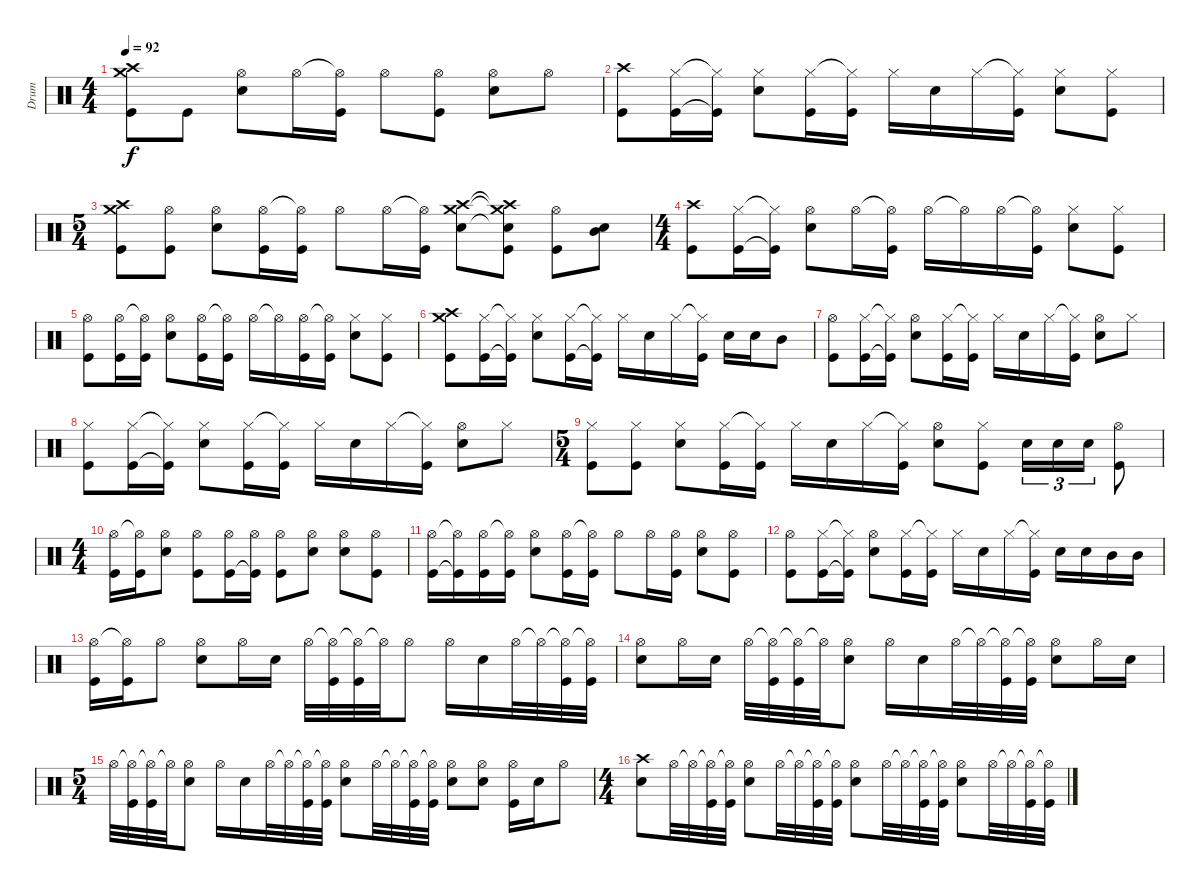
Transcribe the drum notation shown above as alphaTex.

\track ("Drum" "Drum") {instrument percussion}
\staff {score}
\articulation defaults
\ts (4 4)
\tempo 92
\clef neutral
\ks c
("Crash high (hit)" "Crash medium (hit)" "Kick (hit)").8{dy f} "Kick (hit)".8 ("Hi-Hat (open)" "Snare (hit) 2").8 "Hi-Hat (open)".16 ("Hi-Hat (open)"{t} "Kick (hit)").16 "Hi-Hat (open)".8 ("Hi-Hat (open)" "Kick (hit)").8 ("Hi-Hat (open)" "Snare (hit) 2").8 "Hi-Hat (open)".8 |
("Crash high (hit)" "Kick (hit)").8 ("Hi-Hat (closed)" "Kick (hit)").16 ("Hi-Hat (closed)"{t} "Kick (hit)"{t}).16 ("Hi-Hat (closed)" "Snare (hit) 2").8 ("Hi-Hat (closed)" "Kick (hit)").16 ("Hi-Hat (closed)"{t} "Kick (hit)").16 "Hi-Hat (closed)".16 "Snare (hit) 2".16 "Hi-Hat (closed)".16 ("Hi-Hat (closed)"{t} "Kick (hit)").16 ("Hi-Hat (closed)" "Snare (hit) 2").8 ("Hi-Hat (closed)" "Kick (hit)").8 |
\ts (5 4)
("Crash high (hit)" "Crash medium (hit)" "Kick (hit)").8 ("Hi-Hat (open)" "Kick (hit)").8 ("Hi-Hat (open)" "Snare (hit) 2").8 ("Hi-Hat (open)" "Kick (hit)").16 ("Hi-Hat (open)"{t} "Kick (hit)").16 "Hi-Hat (open)".8 "Hi-Hat (open)".16 ("Hi-Hat (open)"{t} "Kick (hit)").16 ("Crash high (hit)" "Crash medium (hit)" "Snare (hit) 2").8 ("Crash high (hit)"{t} "Crash medium (hit)"{t} "Snare (hit) 2"{t} "Kick (hit)").8 ("Hi-Hat (open)" "Kick (hit)").8 ("Mid Tom (hit)" "Snare (hit) 2").8 |
\ts (4 4)
("Crash high (hit)" "Kick (hit)").8 ("Hi-Hat (closed)" "Kick (hit)").16 ("Hi-Hat (closed)"{t} "Kick (hit)"{t}).16 ("Hi-Hat (open)" "Snare (hit) 2").8 "Hi-Hat (open)".16 ("Hi-Hat (open)"{t} "Kick (hit)").16 "Hi-Hat (open)".16 "Hi-Hat (open)"{t}.16 "Hi-Hat (open)".16 ("Hi-Hat (open)"{t} "Kick (hit)").16 ("Hi-Hat (closed)" "Snare (hit) 2").8 ("Hi-Hat (closed)" "Kick (hit)").8 |
("Hi-Hat (open)" "Kick (hit)").8 ("Hi-Hat (open)" "Kick (hit)").16 ("Hi-Hat (open)"{t} "Kick (hit)").16 ("Hi-Hat (open)" "Snare (hit) 2").8 ("Hi-Hat (open)" "Kick (hit)").16 ("Hi-Hat (open)"{t} "Kick (hit)").16 "Hi-Hat (open)".16 "Hi-Hat (open)"{t}.16 ("Hi-Hat (open)" "Kick (hit)").16 ("Hi-Hat (open)"{t} "Kick (hit)").16 ("Hi-Hat (closed)" "Snare (hit) 2").8 ("Hi-Hat (closed)" "Kick (hit)").8 |
("Crash high (hit)" "Crash medium (hit)" "Kick (hit)").8 ("Hi-Hat (closed)" "Kick (hit)").16 ("Hi-Hat (closed)"{t} "Kick (hit)"{t}).16 ("Hi-Hat (closed)" "Snare (hit) 2").8 ("Hi-Hat (closed)" "Kick (hit)").16 ("Hi-Hat (closed)"{t} "Kick (hit)"{t}).16 "Hi-Hat (closed)".16 "Snare (hit) 2".16 "Hi-Hat (closed)".16 ("Hi-Hat (closed)"{t} "Kick (hit)").16 "Snare (hit) 2".16 "Snare (hit) 2".16 "Mid Tom (hit)".8 |
("Hi-Hat (open)" "Kick (hit)").8 ("Hi-Hat (closed)" "Kick (hit)").16 ("Hi-Hat (closed)"{t} "Kick (hit)"{t}).16 ("Hi-Hat (open)" "Snare (hit) 2").8 ("Hi-Hat (closed)" "Kick (hit)").16 ("Hi-Hat (closed)"{t} "Kick (hit)").16 "Hi-Hat (closed)".16 "Snare (hit) 2".16 "Hi-Hat (closed)".16 ("Hi-Hat (closed)"{t} "Kick (hit)").16 ("Hi-Hat (open)" "Snare (hit) 2").8 "Hi-Hat (closed)".8 |
("Hi-Hat (closed)" "Kick (hit)").8 ("Hi-Hat (closed)" "Kick (hit)").16 ("Hi-Hat (closed)"{t} "Kick (hit)"{t}).16 ("Hi-Hat (closed)" "Snare (hit) 2").8 ("Hi-Hat (closed)" "Kick (hit)").16 ("Hi-Hat (closed)"{t} "Kick (hit)").16 "Hi-Hat (closed)".16 "Snare (hit) 2".16 "Hi-Hat (closed)".16 ("Hi-Hat (closed)"{t} "Kick (hit)").16 ("Hi-Hat (open)" "Snare (hit) 2").8 "Hi-Hat (closed)".8 |
\ts (5 4)
("Hi-Hat (closed)" "Kick (hit)").8 ("Hi-Hat (closed)" "Kick (hit)").8 ("Hi-Hat (closed)" "Snare (hit) 2").8 ("Hi-Hat (closed)" "Kick (hit)").16 ("Hi-Hat (closed)"{t} "Kick (hit)").16 "Hi-Hat (closed)".16 "Snare (hit) 2".16 "Hi-Hat (closed)".16 ("Hi-Hat (closed)"{t} "Kick (hit)").16 ("Hi-Hat (open)" "Snare (hit) 2").8 ("Hi-Hat (closed)" "Kick (hit)").8 "Snare (hit) 2".16{tu (3 2)} "Snare (hit) 2".16{tu (3 2)} "Snare (hit) 2".16{tu (3 2)} ("Hi-Hat (open)" "Kick (hit)").8 |
\ts (4 4)
("Hi-Hat (open)" "Kick (hit)").16 ("Hi-Hat (open)"{t} "Kick (hit)").16 ("Hi-Hat (open)" "Snare (hit) 2").8 ("Hi-Hat (open)" "Kick (hit)").8 ("Hi-Hat (open)" "Kick (hit)").16 ("Hi-Hat (open)" "Kick (hit)"{t}).16 ("Hi-Hat (open)" "Kick (hit)").8 ("Hi-Hat (open)" "Snare (hit) 2").8 ("Hi-Hat (open)" "Snare (hit) 2").8 ("Hi-Hat (open)" "Kick (hit)").8 |
("Hi-Hat (open)" "Kick (hit)").16 ("Hi-Hat (open)"{t} "Kick (hit)"{t}).16 ("Hi-Hat (open)" "Kick (hit)").16 ("Hi-Hat (open)"{t} "Kick (hit)").16 ("Hi-Hat (open)" "Snare (hit) 2").8 ("Hi-Hat (open)" "Kick (hit)").16 ("Hi-Hat (open)"{t} "Kick (hit)").16 "Hi-Hat (open)".8 "Hi-Hat (open)".16 ("Hi-Hat (open)" "Kick (hit)").16 ("Hi-Hat (open)" "Snare (hit) 2").8 ("Hi-Hat (open)" "Kick (hit)").8 |
("Hi-Hat (open)" "Kick (hit)").8 ("Hi-Hat (closed)" "Kick (hit)").16 ("Hi-Hat (closed)"{t} "Kick (hit)"{t}).16 ("Hi-Hat (open)" "Snare (hit) 2").8 ("Hi-Hat (closed)" "Kick (hit)").16 ("Hi-Hat (closed)"{t} "Kick (hit)").16 "Hi-Hat (closed)".16 "Snare (hit) 2".16 "Hi-Hat (closed)".16 ("Hi-Hat (closed)"{t} "Kick (hit)").16 "Snare (hit) 2".16 "Snare (hit) 2".16 "Mid Tom (hit)".16 "Mid Tom (hit)".16 |
("Hi-Hat (open)" "Kick (hit)").16 ("Hi-Hat (open)"{t} "Kick (hit)").16 "Hi-Hat (open)".8 ("Hi-Hat (open)" "Snare (hit) 2").8 "Hi-Hat (open)".16 "Snare (hit) 2".16 "Hi-Hat (open)".32 ("Hi-Hat (open)"{t} "Kick (hit)").32 ("Hi-Hat (open)"{t} "Kick (hit)").32 "Hi-Hat (open)"{t}.32 "Hi-Hat (open)".8 "Hi-Hat (open)".16 "Snare (hit) 2".16 "Hi-Hat (open)".32 "Hi-Hat (open)"{t}.32 ("Hi-Hat (open)"{t} "Kick (hit)").32 ("Hi-Hat (open)"{t} "Kick (hit)").32 |
("Hi-Hat (open)" "Snare (hit) 2").8 "Hi-Hat (open)".16 "Snare (hit) 2".16 "Hi-Hat (open)".32 ("Hi-Hat (open)"{t} "Kick (hit)").32 ("Hi-Hat (open)"{t} "Kick (hit)").32 "Hi-Hat (open)"{t}.32 ("Hi-Hat (open)" "Snare (hit) 2").8 "Hi-Hat (open)".16 "Snare (hit) 2".16 "Hi-Hat (open)".32 "Hi-Hat (open)"{t}.32 ("Hi-Hat (open)"{t} "Kick (hit)").32 ("Hi-Hat (open)"{t} "Kick (hit)").32 ("Hi-Hat (open)" "Snare (hit) 2").8 "Hi-Hat (open)".16 "Snare (hit) 2".16 |
\ts (5 4)
"Hi-Hat (open)".32 ("Hi-Hat (open)"{t} "Kick (hit)").32 ("Hi-Hat (open)"{t} "Kick (hit)").32 "Hi-Hat (open)"{t}.32 ("Hi-Hat (open)" "Snare (hit) 2").8 "Hi-Hat (open)".16 "Snare (hit) 2".16 "Hi-Hat (open)".32 "Hi-Hat (open)"{t}.32 ("Hi-Hat (open)"{t} "Kick (hit)").32 ("Hi-Hat (open)"{t} "Kick (hit)").32 ("Hi-Hat (open)" "Snare (hit) 2").8 "Hi-Hat (open)".32 "Hi-Hat (open)"{t}.32 ("Hi-Hat (open)"{t} "Kick (hit)").32 ("Hi-Hat (open)"{t} "Kick (hit)").32 ("Hi-Hat (open)" "Snare (hit) 2").8 ("Hi-Hat (open)" "Snare (hit) 2").8 ("Hi-Hat (open)" "Kick (hit)").16 "Snare (hit) 2".16 "Hi-Hat (open)".8 |
\ts (4 4)
("Crash high (hit)" "Snare (hit) 2").8 "Hi-Hat (open)".32 "Hi-Hat (open)"{t}.32 ("Hi-Hat (open)"{t} "Kick (hit)").32 ("Hi-Hat (open)"{t} "Kick (hit)").32 ("Hi-Hat (open)" "Snare (hit) 2").8 "Hi-Hat (open)".32 "Hi-Hat (open)"{t}.32 ("Hi-Hat (open)"{t} "Kick (hit)").32 ("Hi-Hat (open)"{t} "Kick (hit)").32 ("Hi-Hat (open)" "Snare (hit) 2").8 "Hi-Hat (open)".32 "Hi-Hat (open)"{t}.32 ("Hi-Hat (open)"{t} "Kick (hit)").32 ("Hi-Hat (open)"{t} "Kick (hit)").32 ("Hi-Hat (open)" "Snare (hit) 2").8 "Hi-Hat (open)".32 "Hi-Hat (open)"{t}.32 ("Hi-Hat (open)"{t} "Kick (hit)").32 ("Hi-Hat (open)"{t} "Kick (hit)").32
